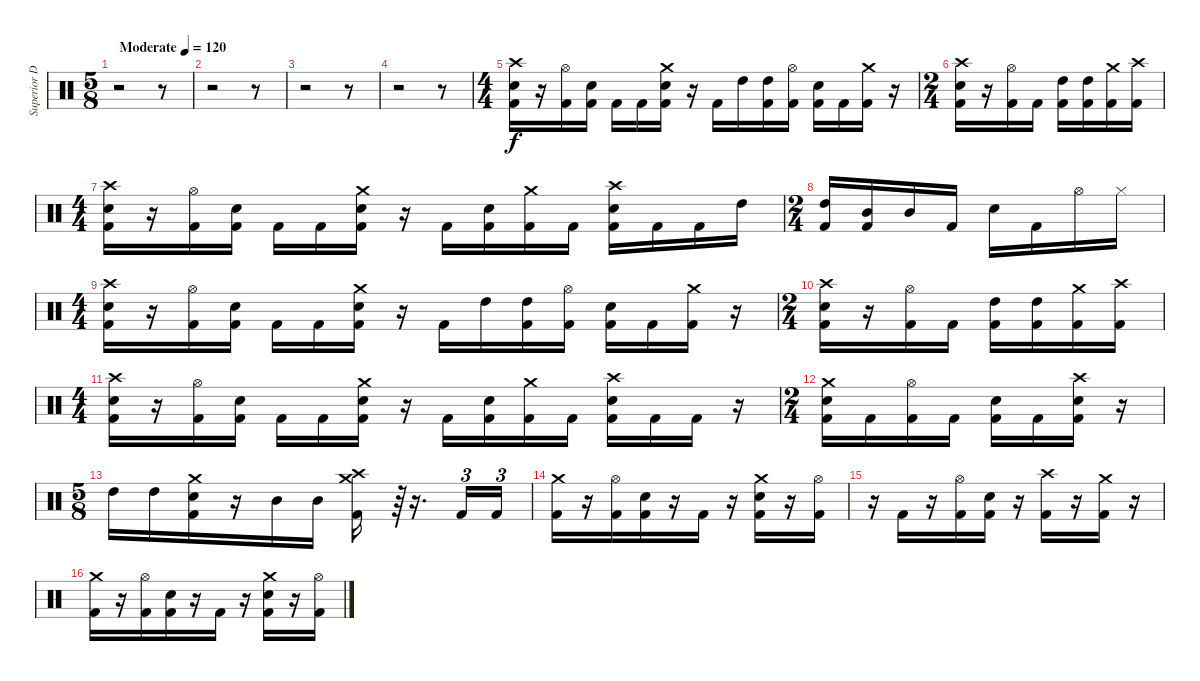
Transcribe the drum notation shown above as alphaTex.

\track ("Superior Drummer 06" "Superior D") {instrument percussion}
\staff {score}
\articulation defaults
\ts (5 8)
\tempo (120 "Moderate")
\clef neutral
\ks c
r.2{dy f} r.8 |
r.2 r.8 |
r.2 r.8 |
r.2 r.8 |
\ts (4 4)
("Kick (hit) 2" "Snare (hit) 2" "Crash high (hit)").16 r.16 ("Kick (hit) 2" "Hi-Hat (open)").16 ("Kick (hit) 2" "Snare (hit) 2").16 "Kick (hit) 2".16 "Kick (hit) 2".16 ("Kick (hit) 2" "Snare (hit) 2" "Crash medium (hit)").16 r.16 "Kick (hit) 2".16 "High Tom (hit)".16 ("Kick (hit) 2" "High Tom (hit)").16 ("Kick (hit) 2" "Hi-Hat (open)").16 ("Kick (hit) 2" "Snare (hit) 2").16 "Kick (hit) 2".16 ("Kick (hit) 2" "Crash medium (hit)").16 r.16 |
\ts (2 4)
("Kick (hit) 2" "Snare (hit) 2" "Crash high (hit)").16 r.16 ("Kick (hit) 2" "Hi-Hat (open)").16 "Kick (hit) 2".16 ("Kick (hit) 2" "High Tom (hit)").16 ("Kick (hit) 2" "High Tom (hit)").16 ("Kick (hit) 2" "Crash medium (hit)").16 ("Kick (hit) 2" "Crash high (hit)").16 |
\ts (4 4)
("Kick (hit) 2" "Snare (hit) 2" "Crash high (hit)").16 r.16 ("Kick (hit) 2" "Hi-Hat (open)").16 ("Kick (hit) 2" "Snare (hit) 2").16 "Kick (hit) 2".16 "Kick (hit) 2".16 ("Kick (hit) 2" "Snare (hit) 2" "Crash medium (hit)").16 r.16 "Kick (hit) 2".16 ("Kick (hit) 2" "Snare (hit) 2").16 ("Kick (hit) 2" "Crash medium (hit)").16 "Kick (hit) 2".16 ("Kick (hit) 2" "Snare (hit) 2" "Crash high (hit)").16 "Kick (hit) 2".16 "Kick (hit) 2".16 "High Tom (hit)".16 |
\ts (2 4)
("Kick (hit) 2" "High Tom (hit)").16 ("Kick (hit) 2" "Mid Tom (hit)").16 "Mid Tom (hit)".16 "Kick (hit) 2".16 "Snare (hit) 2".16 "Kick (hit) 2".16 "Hi-Hat (open)".16 "Hi-Hat (closed)".16 |
\ts (4 4)
("Kick (hit) 2" "Snare (hit) 2" "Crash high (hit)").16 r.16 ("Kick (hit) 2" "Hi-Hat (open)").16 ("Kick (hit) 2" "Snare (hit) 2").16 "Kick (hit) 2".16 "Kick (hit) 2".16 ("Kick (hit) 2" "Snare (hit) 2" "Crash medium (hit)").16 r.16 "Kick (hit) 2".16 "High Tom (hit)".16 ("Kick (hit) 2" "High Tom (hit)").16 ("Kick (hit) 2" "Hi-Hat (open)").16 ("Kick (hit) 2" "Snare (hit) 2").16 "Kick (hit) 2".16 ("Kick (hit) 2" "Crash medium (hit)").16 r.16 |
\ts (2 4)
("Kick (hit) 2" "Snare (hit) 2" "Crash high (hit)").16 r.16 ("Kick (hit) 2" "Hi-Hat (open)").16 "Kick (hit) 2".16 ("Kick (hit) 2" "High Tom (hit)").16 ("Kick (hit) 2" "High Tom (hit)").16 ("Kick (hit) 2" "Crash medium (hit)").16 ("Kick (hit) 2" "Crash high (hit)").16 |
\ts (4 4)
("Kick (hit) 2" "Snare (hit) 2" "Crash high (hit)").16 r.16 ("Kick (hit) 2" "Hi-Hat (open)").16 ("Kick (hit) 2" "Snare (hit) 2").16 "Kick (hit) 2".16 "Kick (hit) 2".16 ("Kick (hit) 2" "Snare (hit) 2" "Crash medium (hit)").16 r.16 "Kick (hit) 2".16 ("Kick (hit) 2" "Snare (hit) 2").16 ("Kick (hit) 2" "Crash medium (hit)").16 "Kick (hit) 2".16 ("Kick (hit) 2" "Snare (hit) 2" "Crash high (hit)").16 "Kick (hit) 2".16 "Kick (hit) 2".16 r.16 |
\ts (2 4)
("Kick (hit) 2" "Snare (hit) 2" "Crash medium (hit)").16 "Kick (hit) 2".16 ("Kick (hit) 2" "Hi-Hat (open)").16 "Kick (hit) 2".16 ("Kick (hit) 2" "Snare (hit) 2").16 "Kick (hit) 2".16 ("Kick (hit) 2" "Snare (hit) 2" "Crash high (hit)").16 r.16 |
\ts (5 8)
"High Tom (hit)".16 "High Tom (hit)".16 ("Kick (hit) 2" "Snare (hit) 2" "Crash medium (hit)").16 r.16 "Mid Tom (hit)".16 "Mid Tom (hit)".16 ("Kick (hit) 2" "Crash high (hit)" "Crash medium (hit)").16 r.64{tu (3 2)} r.16{d} "Kick (hit) 2".16{tu (3 2)} "Kick (hit) 2".16{tu (3 2)} |
("Kick (hit) 2" "Crash medium (hit)").16 r.16 ("Kick (hit) 2" "Hi-Hat (open)").16 ("Kick (hit) 2" "Snare (hit) 2").16 r.16 "Kick (hit) 2".16 r.16 ("Kick (hit) 2" "Snare (hit) 2" "Crash medium (hit)").16 r.16 ("Kick (hit) 2" "Hi-Hat (open)").16 |
r.16 "Kick (hit) 2".16 r.16 ("Kick (hit) 2" "Hi-Hat (open)").16 ("Kick (hit) 2" "Snare (hit) 2").16 r.16 ("Kick (hit) 2" "Crash high (hit)").16 r.16 ("Kick (hit) 2" "Crash medium (hit)").16 r.16 |
("Kick (hit) 2" "Crash medium (hit)").16 r.16 ("Kick (hit) 2" "Hi-Hat (open)").16 ("Kick (hit) 2" "Snare (hit) 2").16 r.16 "Kick (hit) 2".16 r.16 ("Kick (hit) 2" "Snare (hit) 2" "Crash medium (hit)").16 r.16 ("Kick (hit) 2" "Hi-Hat (open)").16
